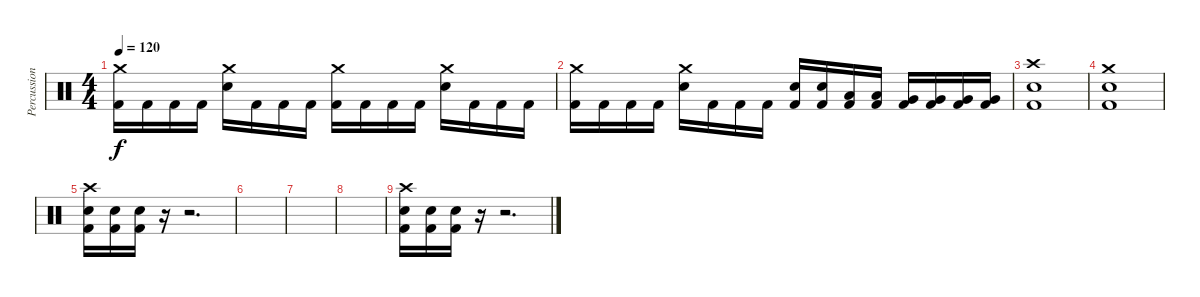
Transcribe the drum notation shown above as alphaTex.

\track ("Percussion" "Percussion") {instrument percussion}
\staff {score}
\articulation defaults
\ts (4 4)
\tempo 120
\clef neutral
\ks c
("Crash medium (hit)" "Kick (hit) 2").16{dy f} "Kick (hit) 2".16 "Kick (hit) 2".16 "Kick (hit) 2".16 ("Crash medium (hit)" "Electric Snare (hit)").16 "Kick (hit) 2".16 "Kick (hit) 2".16 "Kick (hit) 2".16 ("Crash medium (hit)" "Kick (hit) 2").16 "Kick (hit) 2".16 "Kick (hit) 2".16 "Kick (hit) 2".16 ("Crash medium (hit)" "Electric Snare (hit)").16 "Kick (hit) 2".16 "Kick (hit) 2".16 "Kick (hit) 2".16 |
("Crash medium (hit)" "Kick (hit) 2").16 "Kick (hit) 2".16 "Kick (hit) 2".16 "Kick (hit) 2".16 ("Crash medium (hit)" "Electric Snare (hit)").16 "Kick (hit) 2".16 "Kick (hit) 2".16 "Kick (hit) 2".16 ("Electric Snare (hit)" "Kick (hit) 2").16 ("Electric Snare (hit)" "Kick (hit) 2").16 ("Low Tom (hit)" "Kick (hit) 2").16 ("Low Tom (hit)" "Kick (hit) 2").16 ("Very Low Tom (hit)" "Kick (hit) 2").16 ("Very Low Tom (hit)" "Kick (hit) 2").16 ("Very Low Tom (hit)" "Kick (hit) 2").16 ("Very Low Tom (hit)" "Kick (hit) 2").16 |
("Crash high (hit)" "Electric Snare (hit)" "Kick (hit) 2").1 |
("Crash medium (hit)" "Electric Snare (hit)" "Kick (hit) 2").1 |
("Crash high (hit)" "Electric Snare (hit)" "Kick (hit) 2").16 ("Electric Snare (hit)" "Kick (hit) 2").16 ("Electric Snare (hit)" "Kick (hit) 2").16 r.16 r.2{d} |
|
|
|
("Crash high (hit)" "Electric Snare (hit)" "Kick (hit) 2").16 ("Electric Snare (hit)" "Kick (hit) 2").16 ("Electric Snare (hit)" "Kick (hit) 2").16 r.16 r.2{d}
